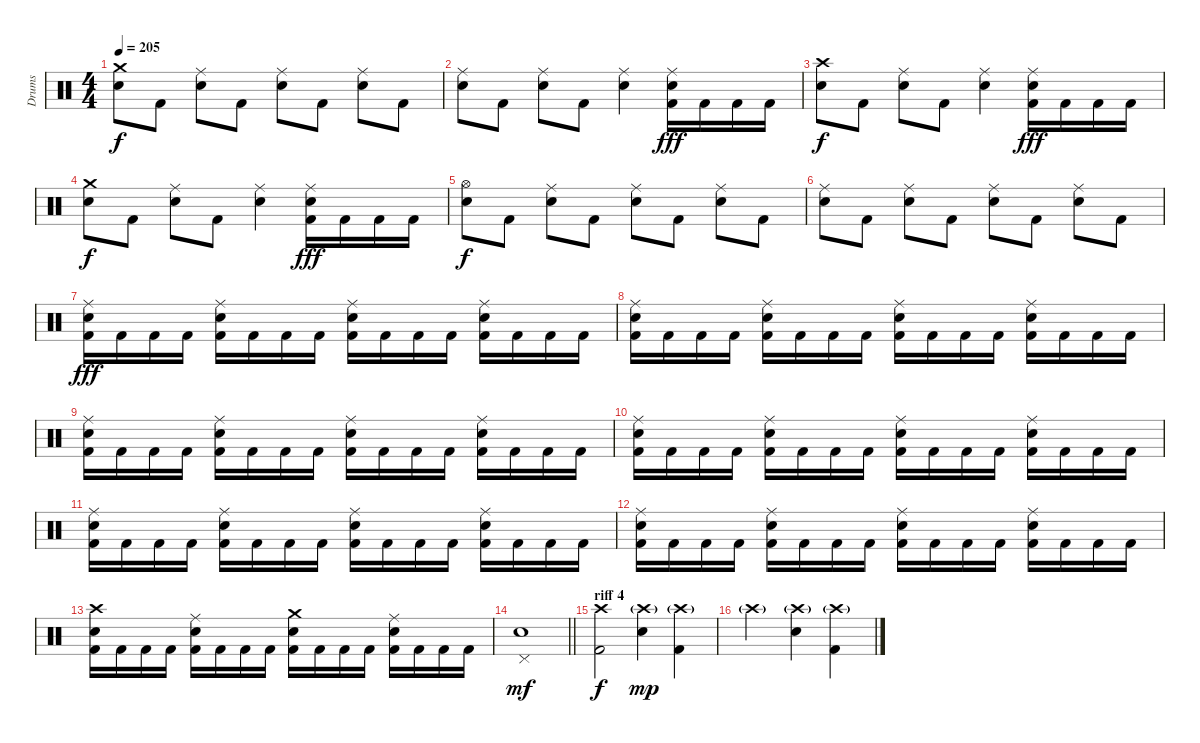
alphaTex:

\track ("Drums" "Drums") {instrument percussion}
\staff {score}
\articulation defaults
\ts (4 4)
\tempo 205
\clef neutral
\ks c
("Crash medium (hit)" "Snare (hit) 2").8{dy f} "Kick (hit) 2".8 ("Ride (middle)" "Snare (hit) 2").8 "Kick (hit) 2".8 ("Ride (middle)" "Snare (hit) 2").8 "Kick (hit) 2".8 ("Ride (middle)" "Snare (hit) 2").8 "Kick (hit) 2".8 |
("Ride (middle)" "Snare (hit) 2").8 "Kick (hit) 2".8 ("Ride (middle)" "Snare (hit) 2").8 "Kick (hit) 2".8 ("Ride (middle)" "Snare (hit) 2").4 ("Ride (middle)" "Snare (hit) 2" "Kick (hit) 2").16{dy fff} "Kick (hit) 2".16 "Kick (hit) 2".16 "Kick (hit) 2".16 |
("Crash high (hit)" "Snare (hit) 2").8{dy f} "Kick (hit) 2".8 ("Ride (middle)" "Snare (hit) 2").8 "Kick (hit) 2".8 ("Ride (middle)" "Snare (hit) 2").4 ("Ride (middle)" "Snare (hit) 2" "Kick (hit) 2").16{dy fff} "Kick (hit) 2".16 "Kick (hit) 2".16 "Kick (hit) 2".16 |
("Crash medium (hit)" "Snare (hit) 2").8{dy f} "Kick (hit) 2".8 ("Ride (middle)" "Snare (hit) 2").8 "Kick (hit) 2".8 ("Ride (middle)" "Snare (hit) 2").4 ("Ride (middle)" "Snare (hit) 2" "Kick (hit) 2").16{dy fff} "Kick (hit) 2".16 "Kick (hit) 2".16 "Kick (hit) 2".16 |
("Hi-Hat (open)" "Snare (hit) 2").8{dy f} "Kick (hit) 2".8 ("Ride (middle)" "Snare (hit) 2").8 "Kick (hit) 2".8 ("Ride (middle)" "Snare (hit) 2").8 "Kick (hit) 2".8 ("Ride (middle)" "Snare (hit) 2").8 "Kick (hit) 2".8 |
("Ride (middle)" "Snare (hit) 2").8 "Kick (hit) 2".8 ("Ride (middle)" "Snare (hit) 2").8 "Kick (hit) 2".8 ("Ride (middle)" "Snare (hit) 2").8 "Kick (hit) 2".8 ("Ride (middle)" "Snare (hit) 2").8 "Kick (hit) 2".8 |
("Ride (middle)" "Snare (hit) 2" "Kick (hit) 2").16{dy fff} "Kick (hit) 2".16 "Kick (hit) 2".16 "Kick (hit) 2".16 ("Ride (middle)" "Snare (hit) 2" "Kick (hit) 2").16 "Kick (hit) 2".16 "Kick (hit) 2".16 "Kick (hit) 2".16 ("Ride (middle)" "Snare (hit) 2" "Kick (hit) 2").16 "Kick (hit) 2".16 "Kick (hit) 2".16 "Kick (hit) 2".16 ("Ride (middle)" "Snare (hit) 2" "Kick (hit) 2").16 "Kick (hit) 2".16 "Kick (hit) 2".16 "Kick (hit) 2".16 |
("Ride (middle)" "Snare (hit) 2" "Kick (hit) 2").16 "Kick (hit) 2".16 "Kick (hit) 2".16 "Kick (hit) 2".16 ("Ride (middle)" "Snare (hit) 2" "Kick (hit) 2").16 "Kick (hit) 2".16 "Kick (hit) 2".16 "Kick (hit) 2".16 ("Ride (middle)" "Snare (hit) 2" "Kick (hit) 2").16 "Kick (hit) 2".16 "Kick (hit) 2".16 "Kick (hit) 2".16 ("Ride (middle)" "Snare (hit) 2" "Kick (hit) 2").16 "Kick (hit) 2".16 "Kick (hit) 2".16 "Kick (hit) 2".16 |
("Ride (middle)" "Snare (hit) 2" "Kick (hit) 2").16 "Kick (hit) 2".16 "Kick (hit) 2".16 "Kick (hit) 2".16 ("Ride (middle)" "Snare (hit) 2" "Kick (hit) 2").16 "Kick (hit) 2".16 "Kick (hit) 2".16 "Kick (hit) 2".16 ("Ride (middle)" "Snare (hit) 2" "Kick (hit) 2").16 "Kick (hit) 2".16 "Kick (hit) 2".16 "Kick (hit) 2".16 ("Ride (middle)" "Snare (hit) 2" "Kick (hit) 2").16 "Kick (hit) 2".16 "Kick (hit) 2".16 "Kick (hit) 2".16 |
("Ride (middle)" "Snare (hit) 2" "Kick (hit) 2").16 "Kick (hit) 2".16 "Kick (hit) 2".16 "Kick (hit) 2".16 ("Ride (middle)" "Snare (hit) 2" "Kick (hit) 2").16 "Kick (hit) 2".16 "Kick (hit) 2".16 "Kick (hit) 2".16 ("Ride (middle)" "Snare (hit) 2" "Kick (hit) 2").16 "Kick (hit) 2".16 "Kick (hit) 2".16 "Kick (hit) 2".16 ("Ride (middle)" "Snare (hit) 2" "Kick (hit) 2").16 "Kick (hit) 2".16 "Kick (hit) 2".16 "Kick (hit) 2".16 |
("Ride (middle)" "Snare (hit) 2" "Kick (hit) 2").16 "Kick (hit) 2".16 "Kick (hit) 2".16 "Kick (hit) 2".16 ("Ride (middle)" "Snare (hit) 2" "Kick (hit) 2").16 "Kick (hit) 2".16 "Kick (hit) 2".16 "Kick (hit) 2".16 ("Ride (middle)" "Snare (hit) 2" "Kick (hit) 2").16 "Kick (hit) 2".16 "Kick (hit) 2".16 "Kick (hit) 2".16 ("Ride (middle)" "Snare (hit) 2" "Kick (hit) 2").16 "Kick (hit) 2".16 "Kick (hit) 2".16 "Kick (hit) 2".16 |
("Ride (middle)" "Snare (hit) 2" "Kick (hit) 2").16 "Kick (hit) 2".16 "Kick (hit) 2".16 "Kick (hit) 2".16 ("Ride (middle)" "Snare (hit) 2" "Kick (hit) 2").16 "Kick (hit) 2".16 "Kick (hit) 2".16 "Kick (hit) 2".16 ("Ride (middle)" "Snare (hit) 2" "Kick (hit) 2").16 "Kick (hit) 2".16 "Kick (hit) 2".16 "Kick (hit) 2".16 ("Ride (middle)" "Snare (hit) 2" "Kick (hit) 2").16 "Kick (hit) 2".16 "Kick (hit) 2".16 "Kick (hit) 2".16 |
("Crash high (hit)" "Snare (hit) 2" "Kick (hit) 2").16 "Kick (hit) 2".16 "Kick (hit) 2".16 "Kick (hit) 2".16 ("Ride (middle)" "Snare (hit) 2" "Kick (hit) 2").16 "Kick (hit) 2".16 "Kick (hit) 2".16 "Kick (hit) 2".16 ("Crash medium (hit)" "Snare (hit) 2" "Kick (hit) 2").16 "Kick (hit) 2".16 "Kick (hit) 2".16 "Kick (hit) 2".16 ("Ride (middle)" "Snare (hit) 2" "Kick (hit) 2").16 "Kick (hit) 2".16 "Kick (hit) 2".16 "Kick (hit) 2".16 |
\barLineRight lightlight
("Pedal Hi-Hat (hit)" "Snare (hit) 2").1{dy mf} |
\section ("" "riff 4")
("Crash high (hit)" "Kick (hit) 2").2{dy f} ("Crash high (hit)"{g} "Snare (hit) 2").4{dy mp} ("Crash high (hit)"{g} "Kick (hit) 2").4 |
"Crash high (hit)"{g}.2 ("Crash high (hit)"{g} "Snare (hit) 2").4 ("Crash high (hit)"{g} "Kick (hit) 2").4
